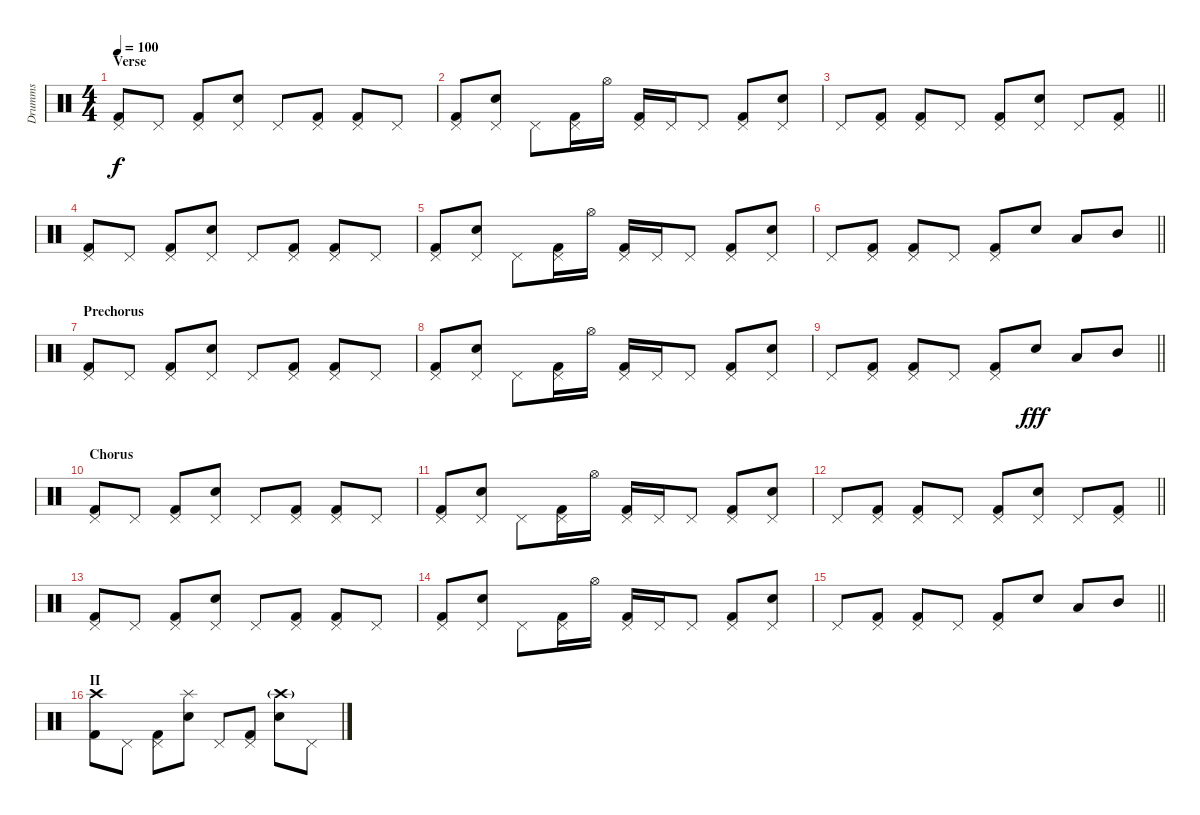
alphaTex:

\track ("Drumms" "Drumms") {instrument percussion}
\staff {score}
\articulation defaults
\ts (4 4)
\section ("" "Verse")
\tempo 100
\clef neutral
\ks c
("Pedal Hi-Hat (hit)" "Kick (hit) 2").8{dy f} "Pedal Hi-Hat (hit)".8 ("Pedal Hi-Hat (hit)" "Kick (hit) 2").8 ("Pedal Hi-Hat (hit)" "Snare (hit) 2").8 "Pedal Hi-Hat (hit)".8 ("Pedal Hi-Hat (hit)" "Kick (hit) 2").8 ("Pedal Hi-Hat (hit)" "Kick (hit) 2").8 "Pedal Hi-Hat (hit)".8 |
("Pedal Hi-Hat (hit)" "Kick (hit) 2").8 ("Pedal Hi-Hat (hit)" "Snare (hit) 2").8 "Pedal Hi-Hat (hit)".8 ("Pedal Hi-Hat (hit)" "Kick (hit) 2").16 "Hi-Hat (open)".16 ("Pedal Hi-Hat (hit)" "Kick (hit) 2").16 "Pedal Hi-Hat (hit)".16 "Pedal Hi-Hat (hit)".8 ("Pedal Hi-Hat (hit)" "Kick (hit) 2").8 ("Pedal Hi-Hat (hit)" "Snare (hit) 2").8 |
\barLineRight lightlight "Pedal Hi-Hat (hit)".8
("Pedal Hi-Hat (hit)" "Kick (hit) 2").8 ("Pedal Hi-Hat (hit)" "Kick (hit) 2").8 "Pedal Hi-Hat (hit)".8 ("Pedal Hi-Hat (hit)" "Kick (hit) 2").8 ("Pedal Hi-Hat (hit)" "Snare (hit) 2").8 "Pedal Hi-Hat (hit)".8 ("Pedal Hi-Hat (hit)" "Kick (hit) 2").8 |
("Pedal Hi-Hat (hit)" "Kick (hit) 2").8 "Pedal Hi-Hat (hit)".8 ("Pedal Hi-Hat (hit)" "Kick (hit) 2").8 ("Pedal Hi-Hat (hit)" "Snare (hit) 2").8 "Pedal Hi-Hat (hit)".8 ("Pedal Hi-Hat (hit)" "Kick (hit) 2").8 ("Pedal Hi-Hat (hit)" "Kick (hit) 2").8 "Pedal Hi-Hat (hit)".8 |
("Pedal Hi-Hat (hit)" "Kick (hit) 2").8 ("Pedal Hi-Hat (hit)" "Snare (hit) 2").8 "Pedal Hi-Hat (hit)".8 ("Pedal Hi-Hat (hit)" "Kick (hit) 2").16 "Hi-Hat (open)".16 ("Pedal Hi-Hat (hit)" "Kick (hit) 2").16 "Pedal Hi-Hat (hit)".16 "Pedal Hi-Hat (hit)".8 ("Pedal Hi-Hat (hit)" "Kick (hit) 2").8 ("Pedal Hi-Hat (hit)" "Snare (hit) 2").8 |
\barLineRight lightlight "Pedal Hi-Hat (hit)".8
("Pedal Hi-Hat (hit)" "Kick (hit) 2").8 ("Pedal Hi-Hat (hit)" "Kick (hit) 2").8 "Pedal Hi-Hat (hit)".8 ("Pedal Hi-Hat (hit)" "Kick (hit) 2").8 "Snare (hit) 2".8 "Low Tom (hit)".8 "Mid Tom (hit)".8 |
\section ("" "Prechorus")
("Pedal Hi-Hat (hit)" "Kick (hit) 2").8 "Pedal Hi-Hat (hit)".8 ("Pedal Hi-Hat (hit)" "Kick (hit) 2").8 ("Pedal Hi-Hat (hit)" "Snare (hit) 2").8 "Pedal Hi-Hat (hit)".8 ("Pedal Hi-Hat (hit)" "Kick (hit) 2").8 ("Pedal Hi-Hat (hit)" "Kick (hit) 2").8 "Pedal Hi-Hat (hit)".8 |
("Pedal Hi-Hat (hit)" "Kick (hit) 2").8 ("Pedal Hi-Hat (hit)" "Snare (hit) 2").8 "Pedal Hi-Hat (hit)".8 ("Pedal Hi-Hat (hit)" "Kick (hit) 2").16 "Hi-Hat (open)".16 ("Pedal Hi-Hat (hit)" "Kick (hit) 2").16 "Pedal Hi-Hat (hit)".16 "Pedal Hi-Hat (hit)".8 ("Pedal Hi-Hat (hit)" "Kick (hit) 2").8 ("Pedal Hi-Hat (hit)" "Snare (hit) 2").8 |
\barLineRight lightlight "Pedal Hi-Hat (hit)".8
("Pedal Hi-Hat (hit)" "Kick (hit) 2").8 ("Pedal Hi-Hat (hit)" "Kick (hit) 2").8 "Pedal Hi-Hat (hit)".8 ("Pedal Hi-Hat (hit)" "Kick (hit) 2").8 "Snare (hit) 2".8{dy fff} "Low Tom (hit)".8 "Mid Tom (hit)".8 |
\section ("" "Chorus")
("Pedal Hi-Hat (hit)" "Kick (hit) 2").8 "Pedal Hi-Hat (hit)".8 ("Pedal Hi-Hat (hit)" "Kick (hit) 2").8 ("Pedal Hi-Hat (hit)" "Snare (hit) 2").8 "Pedal Hi-Hat (hit)".8 ("Pedal Hi-Hat (hit)" "Kick (hit) 2").8 ("Pedal Hi-Hat (hit)" "Kick (hit) 2").8 "Pedal Hi-Hat (hit)".8 |
("Pedal Hi-Hat (hit)" "Kick (hit) 2").8 ("Pedal Hi-Hat (hit)" "Snare (hit) 2").8 "Pedal Hi-Hat (hit)".8 ("Pedal Hi-Hat (hit)" "Kick (hit) 2").16 "Hi-Hat (open)".16 ("Pedal Hi-Hat (hit)" "Kick (hit) 2").16 "Pedal Hi-Hat (hit)".16 "Pedal Hi-Hat (hit)".8 ("Pedal Hi-Hat (hit)" "Kick (hit) 2").8 ("Pedal Hi-Hat (hit)" "Snare (hit) 2").8 |
\barLineRight lightlight "Pedal Hi-Hat (hit)".8
("Pedal Hi-Hat (hit)" "Kick (hit) 2").8 ("Pedal Hi-Hat (hit)" "Kick (hit) 2").8 "Pedal Hi-Hat (hit)".8 ("Pedal Hi-Hat (hit)" "Kick (hit) 2").8 ("Pedal Hi-Hat (hit)" "Snare (hit) 2").8 "Pedal Hi-Hat (hit)".8 ("Pedal Hi-Hat (hit)" "Kick (hit) 2").8 |
("Pedal Hi-Hat (hit)" "Kick (hit) 2").8 "Pedal Hi-Hat (hit)".8 ("Pedal Hi-Hat (hit)" "Kick (hit) 2").8 ("Pedal Hi-Hat (hit)" "Snare (hit) 2").8 "Pedal Hi-Hat (hit)".8 ("Pedal Hi-Hat (hit)" "Kick (hit) 2").8 ("Pedal Hi-Hat (hit)" "Kick (hit) 2").8 "Pedal Hi-Hat (hit)".8 |
("Pedal Hi-Hat (hit)" "Kick (hit) 2").8 ("Pedal Hi-Hat (hit)" "Snare (hit) 2").8 "Pedal Hi-Hat (hit)".8 ("Pedal Hi-Hat (hit)" "Kick (hit) 2").16 "Hi-Hat (open)".16 ("Pedal Hi-Hat (hit)" "Kick (hit) 2").16 "Pedal Hi-Hat (hit)".16 "Pedal Hi-Hat (hit)".8 ("Pedal Hi-Hat (hit)" "Kick (hit) 2").8 ("Pedal Hi-Hat (hit)" "Snare (hit) 2").8 |
\barLineRight lightlight "Pedal Hi-Hat (hit)".8
("Pedal Hi-Hat (hit)" "Kick (hit) 2").8 ("Pedal Hi-Hat (hit)" "Kick (hit) 2").8 "Pedal Hi-Hat (hit)".8 ("Pedal Hi-Hat (hit)" "Kick (hit) 2").8 "Snare (hit) 2".8 "Low Tom (hit)".8 "Mid Tom (hit)".8 |
\section ("" "II")
("Crash high (hit)" "Kick (hit) 2").8 "Pedal Hi-Hat (hit)".8 ("Pedal Hi-Hat (hit)" "Kick (hit) 2").8 ("Splash (hit)" "Snare (hit) 2").8 "Pedal Hi-Hat (hit)".8 ("Pedal Hi-Hat (hit)" "Kick (hit) 2").8 ("Crash high (hit)"{g} "Snare (hit) 2").8 "Pedal Hi-Hat (hit)".8
